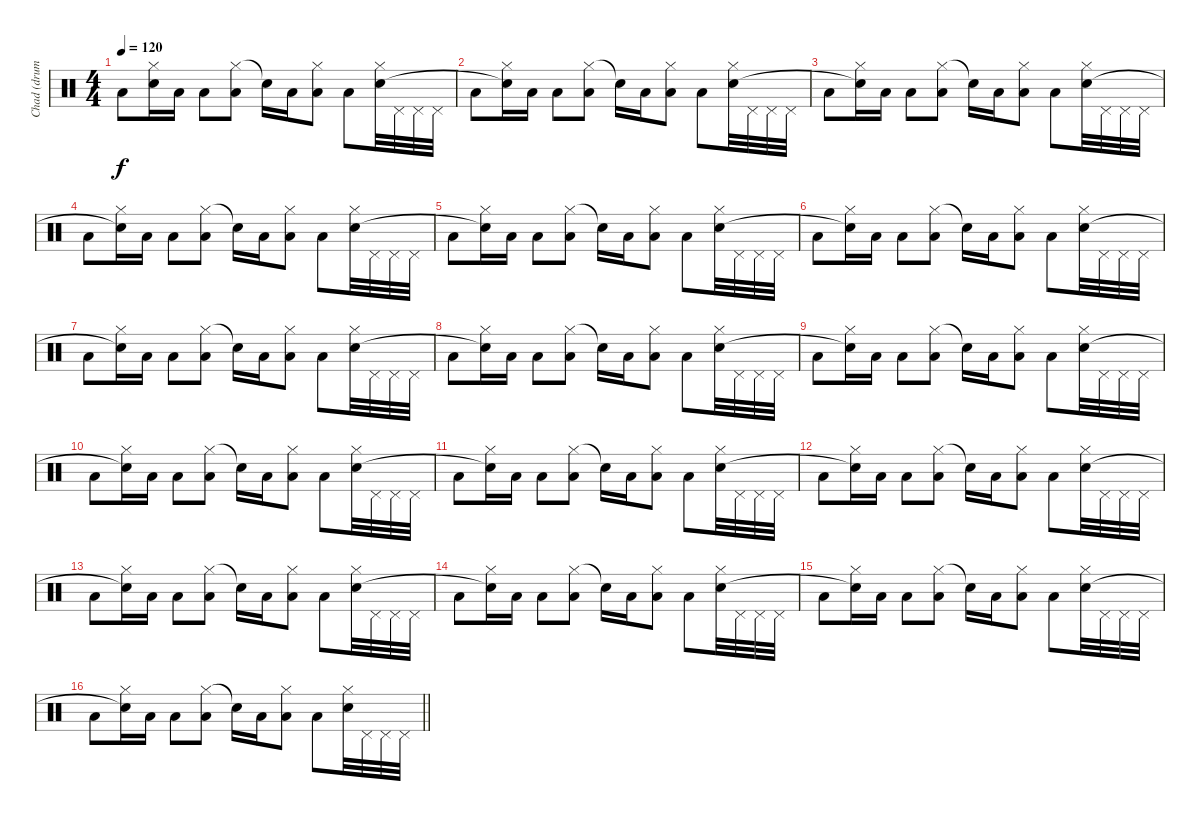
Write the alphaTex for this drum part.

\track ("Chad (drums)" "Chad (drum") {instrument percussion}
\staff {score}
\articulation defaults
\ts (4 4)
\tempo 120
\clef neutral
\ks c "Low Tom (hit)".8{dy f}
("Hi-Hat (closed)" "Snare (hit)"{t}).16 "Low Tom (hit)".16 "Low Floor Tom (hit)".8 ("Hi-Hat (closed)" "Low Tom (hit)").8 "Snare (hit)"{t}.16 "Low Tom (hit)".16 ("Hi-Hat (closed)" "Low Floor Tom (hit)").8 "Low Tom (hit)".8 ("Hi-Hat (closed)" "Snare (hit) 2").32 "Pedal Hi-Hat (hit)".32 "Pedal Hi-Hat (hit)".32 "Pedal Hi-Hat (hit)".32 |
"Low Tom (hit)".8 ("Hi-Hat (closed)" "Snare (hit)"{t}).16 "Low Tom (hit)".16 "Low Floor Tom (hit)".8 ("Hi-Hat (closed)" "Low Tom (hit)").8 "Snare (hit)"{t}.16 "Low Tom (hit)".16 ("Hi-Hat (closed)" "Low Floor Tom (hit)").8 "Low Tom (hit)".8 ("Hi-Hat (closed)" "Snare (hit) 2").32 "Pedal Hi-Hat (hit)".32 "Pedal Hi-Hat (hit)".32 "Pedal Hi-Hat (hit)".32 |
"Low Tom (hit)".8 ("Hi-Hat (closed)" "Snare (hit)"{t}).16 "Low Tom (hit)".16 "Low Floor Tom (hit)".8 ("Hi-Hat (closed)" "Low Tom (hit)").8 "Snare (hit)"{t}.16 "Low Tom (hit)".16 ("Hi-Hat (closed)" "Low Floor Tom (hit)").8 "Low Tom (hit)".8 ("Hi-Hat (closed)" "Snare (hit) 2").32 "Pedal Hi-Hat (hit)".32 "Pedal Hi-Hat (hit)".32 "Pedal Hi-Hat (hit)".32 |
"Low Tom (hit)".8 ("Hi-Hat (closed)" "Snare (hit)"{t}).16 "Low Tom (hit)".16 "Low Floor Tom (hit)".8 ("Hi-Hat (closed)" "Low Tom (hit)").8 "Snare (hit)"{t}.16 "Low Tom (hit)".16 ("Hi-Hat (closed)" "Low Floor Tom (hit)").8 "Low Tom (hit)".8 ("Hi-Hat (closed)" "Snare (hit) 2").32 "Pedal Hi-Hat (hit)".32 "Pedal Hi-Hat (hit)".32 "Pedal Hi-Hat (hit)".32 |
"Low Tom (hit)".8 ("Hi-Hat (closed)" "Snare (hit)"{t}).16 "Low Tom (hit)".16 "Low Floor Tom (hit)".8 ("Hi-Hat (closed)" "Low Tom (hit)").8 "Snare (hit)"{t}.16 "Low Tom (hit)".16 ("Hi-Hat (closed)" "Low Floor Tom (hit)").8 "Low Tom (hit)".8 ("Hi-Hat (closed)" "Snare (hit) 2").32 "Pedal Hi-Hat (hit)".32 "Pedal Hi-Hat (hit)".32 "Pedal Hi-Hat (hit)".32 |
"Low Tom (hit)".8 ("Hi-Hat (closed)" "Snare (hit)"{t}).16 "Low Tom (hit)".16 "Low Floor Tom (hit)".8 ("Hi-Hat (closed)" "Low Tom (hit)").8 "Snare (hit)"{t}.16 "Low Tom (hit)".16 ("Hi-Hat (closed)" "Low Floor Tom (hit)").8 "Low Tom (hit)".8 ("Hi-Hat (closed)" "Snare (hit) 2").32 "Pedal Hi-Hat (hit)".32 "Pedal Hi-Hat (hit)".32 "Pedal Hi-Hat (hit)".32 |
"Low Tom (hit)".8 ("Hi-Hat (closed)" "Snare (hit)"{t}).16 "Low Tom (hit)".16 "Low Floor Tom (hit)".8 ("Hi-Hat (closed)" "Low Tom (hit)").8 "Snare (hit)"{t}.16 "Low Tom (hit)".16 ("Hi-Hat (closed)" "Low Floor Tom (hit)").8 "Low Tom (hit)".8 ("Hi-Hat (closed)" "Snare (hit) 2").32 "Pedal Hi-Hat (hit)".32 "Pedal Hi-Hat (hit)".32 "Pedal Hi-Hat (hit)".32 |
"Low Tom (hit)".8 ("Hi-Hat (closed)" "Snare (hit)"{t}).16 "Low Tom (hit)".16 "Low Floor Tom (hit)".8 ("Hi-Hat (closed)" "Low Tom (hit)").8 "Snare (hit)"{t}.16 "Low Tom (hit)".16 ("Hi-Hat (closed)" "Low Floor Tom (hit)").8 "Low Tom (hit)".8 ("Hi-Hat (closed)" "Snare (hit) 2").32 "Pedal Hi-Hat (hit)".32 "Pedal Hi-Hat (hit)".32 "Pedal Hi-Hat (hit)".32 |
"Low Tom (hit)".8 ("Hi-Hat (closed)" "Snare (hit)"{t}).16 "Low Tom (hit)".16 "Low Floor Tom (hit)".8 ("Hi-Hat (closed)" "Low Tom (hit)").8 "Snare (hit)"{t}.16 "Low Tom (hit)".16 ("Hi-Hat (closed)" "Low Floor Tom (hit)").8 "Low Tom (hit)".8 ("Hi-Hat (closed)" "Snare (hit) 2").32 "Pedal Hi-Hat (hit)".32 "Pedal Hi-Hat (hit)".32 "Pedal Hi-Hat (hit)".32 |
"Low Tom (hit)".8 ("Hi-Hat (closed)" "Snare (hit)"{t}).16 "Low Tom (hit)".16 "Low Floor Tom (hit)".8 ("Hi-Hat (closed)" "Low Tom (hit)").8 "Snare (hit)"{t}.16 "Low Tom (hit)".16 ("Hi-Hat (closed)" "Low Floor Tom (hit)").8 "Low Tom (hit)".8 ("Hi-Hat (closed)" "Snare (hit) 2").32 "Pedal Hi-Hat (hit)".32 "Pedal Hi-Hat (hit)".32 "Pedal Hi-Hat (hit)".32 |
"Low Tom (hit)".8 ("Hi-Hat (closed)" "Snare (hit)"{t}).16 "Low Tom (hit)".16 "Low Floor Tom (hit)".8 ("Hi-Hat (closed)" "Low Tom (hit)").8 "Snare (hit)"{t}.16 "Low Tom (hit)".16 ("Hi-Hat (closed)" "Low Floor Tom (hit)").8 "Low Tom (hit)".8 ("Hi-Hat (closed)" "Snare (hit) 2").32 "Pedal Hi-Hat (hit)".32 "Pedal Hi-Hat (hit)".32 "Pedal Hi-Hat (hit)".32 |
"Low Tom (hit)".8 ("Hi-Hat (closed)" "Snare (hit)"{t}).16 "Low Tom (hit)".16 "Low Floor Tom (hit)".8 ("Hi-Hat (closed)" "Low Tom (hit)").8 "Snare (hit)"{t}.16 "Low Tom (hit)".16 ("Hi-Hat (closed)" "Low Floor Tom (hit)").8 "Low Tom (hit)".8 ("Hi-Hat (closed)" "Snare (hit) 2").32 "Pedal Hi-Hat (hit)".32 "Pedal Hi-Hat (hit)".32 "Pedal Hi-Hat (hit)".32 |
"Low Tom (hit)".8 ("Hi-Hat (closed)" "Snare (hit)"{t}).16 "Low Tom (hit)".16 "Low Floor Tom (hit)".8 ("Hi-Hat (closed)" "Low Tom (hit)").8 "Snare (hit)"{t}.16 "Low Tom (hit)".16 ("Hi-Hat (closed)" "Low Floor Tom (hit)").8 "Low Tom (hit)".8 ("Hi-Hat (closed)" "Snare (hit) 2").32 "Pedal Hi-Hat (hit)".32 "Pedal Hi-Hat (hit)".32 "Pedal Hi-Hat (hit)".32 |
"Low Tom (hit)".8 ("Hi-Hat (closed)" "Snare (hit)"{t}).16 "Low Tom (hit)".16 "Low Floor Tom (hit)".8 ("Hi-Hat (closed)" "Low Tom (hit)").8 "Snare (hit)"{t}.16 "Low Tom (hit)".16 ("Hi-Hat (closed)" "Low Floor Tom (hit)").8 "Low Tom (hit)".8 ("Hi-Hat (closed)" "Snare (hit) 2").32 "Pedal Hi-Hat (hit)".32 "Pedal Hi-Hat (hit)".32 "Pedal Hi-Hat (hit)".32 |
"Low Tom (hit)".8 ("Hi-Hat (closed)" "Snare (hit)"{t}).16 "Low Tom (hit)".16 "Low Floor Tom (hit)".8 ("Hi-Hat (closed)" "Low Tom (hit)").8 "Snare (hit)"{t}.16 "Low Tom (hit)".16 ("Hi-Hat (closed)" "Low Floor Tom (hit)").8 "Low Tom (hit)".8 ("Hi-Hat (closed)" "Snare (hit) 2").32 "Pedal Hi-Hat (hit)".32 "Pedal Hi-Hat (hit)".32 "Pedal Hi-Hat (hit)".32 |
\barLineRight lightlight "Low Tom (hit)".8
("Hi-Hat (closed)" "Snare (hit)"{t}).16 "Low Tom (hit)".16 "Low Floor Tom (hit)".8 ("Hi-Hat (closed)" "Low Tom (hit)").8 "Snare (hit)"{t}.16 "Low Tom (hit)".16 ("Hi-Hat (closed)" "Low Floor Tom (hit)").8 "Low Tom (hit)".8 ("Hi-Hat (closed)" "Snare (hit) 2").32 "Pedal Hi-Hat (hit)".32 "Pedal Hi-Hat (hit)".32 "Pedal Hi-Hat (hit)".32
